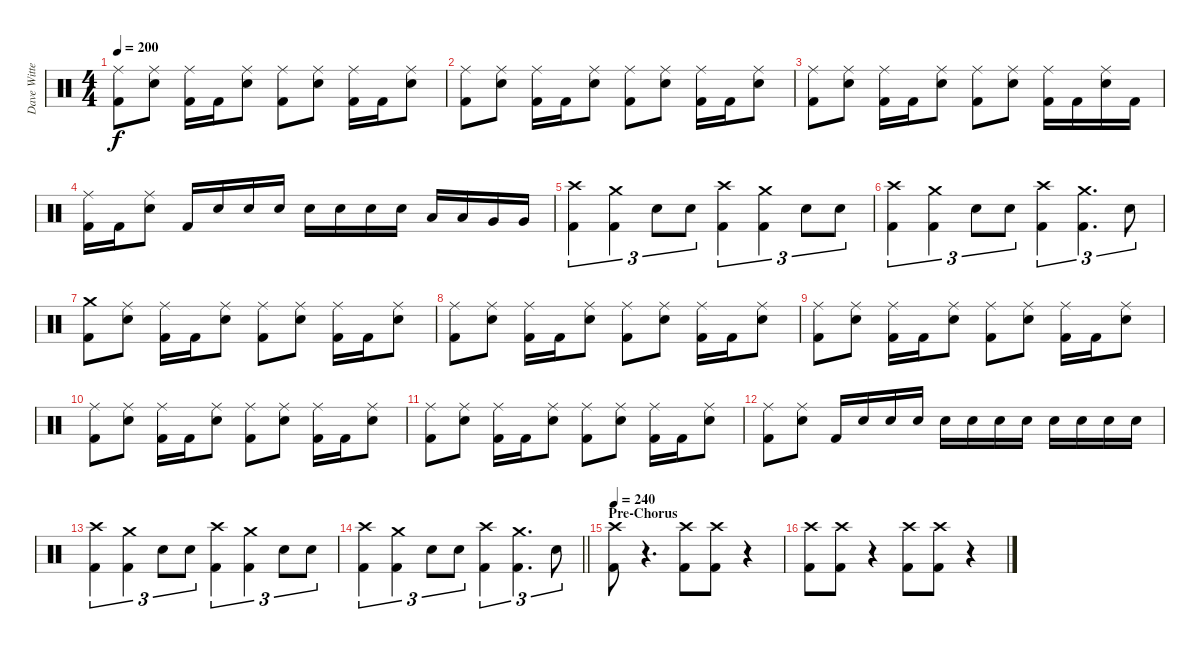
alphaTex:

\track ("Dave Witte" "Dave Witte") {instrument percussion}
\staff {score}
\articulation defaults
\ts (4 4)
\tempo 200
\clef neutral
\ks c
("Ride (middle)" "Kick (hit) 2").8{dy f} ("Ride (middle)" "Electric Snare (hit)").8 ("Ride (middle)" "Kick (hit) 2").16 "Kick (hit) 2".16 ("Ride (middle)" "Electric Snare (hit)").8 ("Ride (middle)" "Kick (hit) 2").8 ("Ride (middle)" "Electric Snare (hit)").8 ("Ride (middle)" "Kick (hit) 2").16 "Kick (hit) 2".16 ("Ride (middle)" "Electric Snare (hit)").8 |
("Ride (middle)" "Kick (hit) 2").8 ("Ride (middle)" "Electric Snare (hit)").8 ("Ride (middle)" "Kick (hit) 2").16 "Kick (hit) 2".16 ("Ride (middle)" "Electric Snare (hit)").8 ("Ride (middle)" "Kick (hit) 2").8 ("Ride (middle)" "Electric Snare (hit)").8 ("Ride (middle)" "Kick (hit) 2").16 "Kick (hit) 2".16 ("Ride (middle)" "Electric Snare (hit)").8 |
("Ride (middle)" "Kick (hit) 2").8 ("Ride (middle)" "Electric Snare (hit)").8 ("Ride (middle)" "Kick (hit) 2").16 "Kick (hit) 2".16 ("Ride (middle)" "Electric Snare (hit)").8 ("Ride (middle)" "Kick (hit) 2").8 ("Ride (middle)" "Electric Snare (hit)").8 ("Ride (middle)" "Kick (hit) 2").16 "Kick (hit) 2".16 ("Ride (middle)" "Electric Snare (hit)").16 "Kick (hit) 2".16 |
("Ride (middle)" "Kick (hit) 2").16 "Kick (hit) 2".16 ("Ride (middle)" "Electric Snare (hit)").8 "Kick (hit) 2".16 "Electric Snare (hit)".16 "Electric Snare (hit)".16 "Electric Snare (hit)".16 "Electric Snare (hit)".16 "Electric Snare (hit)".16 "Electric Snare (hit)".16 "Electric Snare (hit)".16 "Low Tom (hit)".16 "Low Tom (hit)".16 "Very Low Tom (hit)".16 "Very Low Tom (hit)".16 |
("Crash high (hit)" "Kick (hit) 2").4{tu (3 2)} ("Crash medium (hit)" "Kick (hit) 2").4{tu (3 2)} "Electric Snare (hit)".8{tu (3 2)} "Electric Snare (hit)".8{tu (3 2)} ("Crash high (hit)" "Kick (hit) 2").4{tu (3 2)} ("Crash medium (hit)" "Kick (hit) 2").4{tu (3 2)} "Electric Snare (hit)".8{tu (3 2)} "Electric Snare (hit)".8{tu (3 2)} |
("Crash high (hit)" "Kick (hit) 2").4{tu (3 2)} ("Crash medium (hit)" "Kick (hit) 2").4{tu (3 2)} "Electric Snare (hit)".8{tu (3 2)} "Electric Snare (hit)".8{tu (3 2)} ("Crash high (hit)" "Kick (hit) 2").4{tu (3 2)} ("Crash medium (hit)" "Kick (hit) 2").4{d tu (3 2)} "Electric Snare (hit)".8{tu (3 2)} |
("Crash medium (hit)" "Kick (hit) 2").8 ("Ride (middle)" "Electric Snare (hit)").8 ("Ride (middle)" "Kick (hit) 2").16 "Kick (hit) 2".16 ("Ride (middle)" "Electric Snare (hit)").8 ("Ride (middle)" "Kick (hit) 2").8 ("Ride (middle)" "Electric Snare (hit)").8 ("Ride (middle)" "Kick (hit) 2").16 "Kick (hit) 2".16 ("Ride (middle)" "Electric Snare (hit)").8 |
("Ride (middle)" "Kick (hit) 2").8 ("Ride (middle)" "Electric Snare (hit)").8 ("Ride (middle)" "Kick (hit) 2").16 "Kick (hit) 2".16 ("Ride (middle)" "Electric Snare (hit)").8 ("Ride (middle)" "Kick (hit) 2").8 ("Ride (middle)" "Electric Snare (hit)").8 ("Ride (middle)" "Kick (hit) 2").16 "Kick (hit) 2".16 ("Ride (middle)" "Electric Snare (hit)").8 |
("Ride (middle)" "Kick (hit) 2").8 ("Ride (middle)" "Electric Snare (hit)").8 ("Ride (middle)" "Kick (hit) 2").16 "Kick (hit) 2".16 ("Ride (middle)" "Electric Snare (hit)").8 ("Ride (middle)" "Kick (hit) 2").8 ("Ride (middle)" "Electric Snare (hit)").8 ("Ride (middle)" "Kick (hit) 2").16 "Kick (hit) 2".16 ("Ride (middle)" "Electric Snare (hit)").8 |
("Ride (middle)" "Kick (hit) 2").8 ("Ride (middle)" "Electric Snare (hit)").8 ("Ride (middle)" "Kick (hit) 2").16 "Kick (hit) 2".16 ("Ride (middle)" "Electric Snare (hit)").8 ("Ride (middle)" "Kick (hit) 2").8 ("Ride (middle)" "Electric Snare (hit)").8 ("Ride (middle)" "Kick (hit) 2").16 "Kick (hit) 2".16 ("Ride (middle)" "Electric Snare (hit)").8 |
("Ride (middle)" "Kick (hit) 2").8 ("Ride (middle)" "Electric Snare (hit)").8 ("Ride (middle)" "Kick (hit) 2").16 "Kick (hit) 2".16 ("Ride (middle)" "Electric Snare (hit)").8 ("Ride (middle)" "Kick (hit) 2").8 ("Ride (middle)" "Electric Snare (hit)").8 ("Ride (middle)" "Kick (hit) 2").16 "Kick (hit) 2".16 ("Ride (middle)" "Electric Snare (hit)").8 |
("Ride (middle)" "Kick (hit) 2").8 ("Ride (middle)" "Electric Snare (hit)").8 "Kick (hit) 2".16 "Electric Snare (hit)".16 "Electric Snare (hit)".16 "Electric Snare (hit)".16 "Electric Snare (hit)".16 "Electric Snare (hit)".16 "Electric Snare (hit)".16 "Electric Snare (hit)".16 "Electric Snare (hit)".16 "Electric Snare (hit)".16 "Electric Snare (hit)".16 "Electric Snare (hit)".16 |
("Crash high (hit)" "Kick (hit) 2").4{tu (3 2)} ("Crash medium (hit)" "Kick (hit) 2").4{tu (3 2)} "Electric Snare (hit)".8{tu (3 2)} "Electric Snare (hit)".8{tu (3 2)} ("Crash high (hit)" "Kick (hit) 2").4{tu (3 2)} ("Crash medium (hit)" "Kick (hit) 2").4{tu (3 2)} "Electric Snare (hit)".8{tu (3 2)} "Electric Snare (hit)".8{tu (3 2)} |
\barLineRight lightlight
("Crash high (hit)" "Kick (hit) 2").4{tu (3 2)} ("Crash medium (hit)" "Kick (hit) 2").4{tu (3 2)} "Electric Snare (hit)".8{tu (3 2)} "Electric Snare (hit)".8{tu (3 2)} ("Crash high (hit)" "Kick (hit) 2").4{tu (3 2)} ("Crash medium (hit)" "Kick (hit) 2").4{d tu (3 2)} "Electric Snare (hit)".8{tu (3 2)} |
\section ("" "Pre-Chorus")
\tempo 240
("Crash high (hit)" "Kick (hit) 2").8 r.4{d volume 0} ("Crash high (hit)" "Kick (hit) 2").8{volume 14} ("Crash high (hit)" "Kick (hit) 2").8 r.4{volume 0} |
("Crash high (hit)" "Kick (hit) 2").8{volume 14} ("Crash high (hit)" "Kick (hit) 2").8 r.4{volume 0} ("Crash high (hit)" "Kick (hit) 2").8{volume 14} ("Crash high (hit)" "Kick (hit) 2").8 r.4{volume 0}
